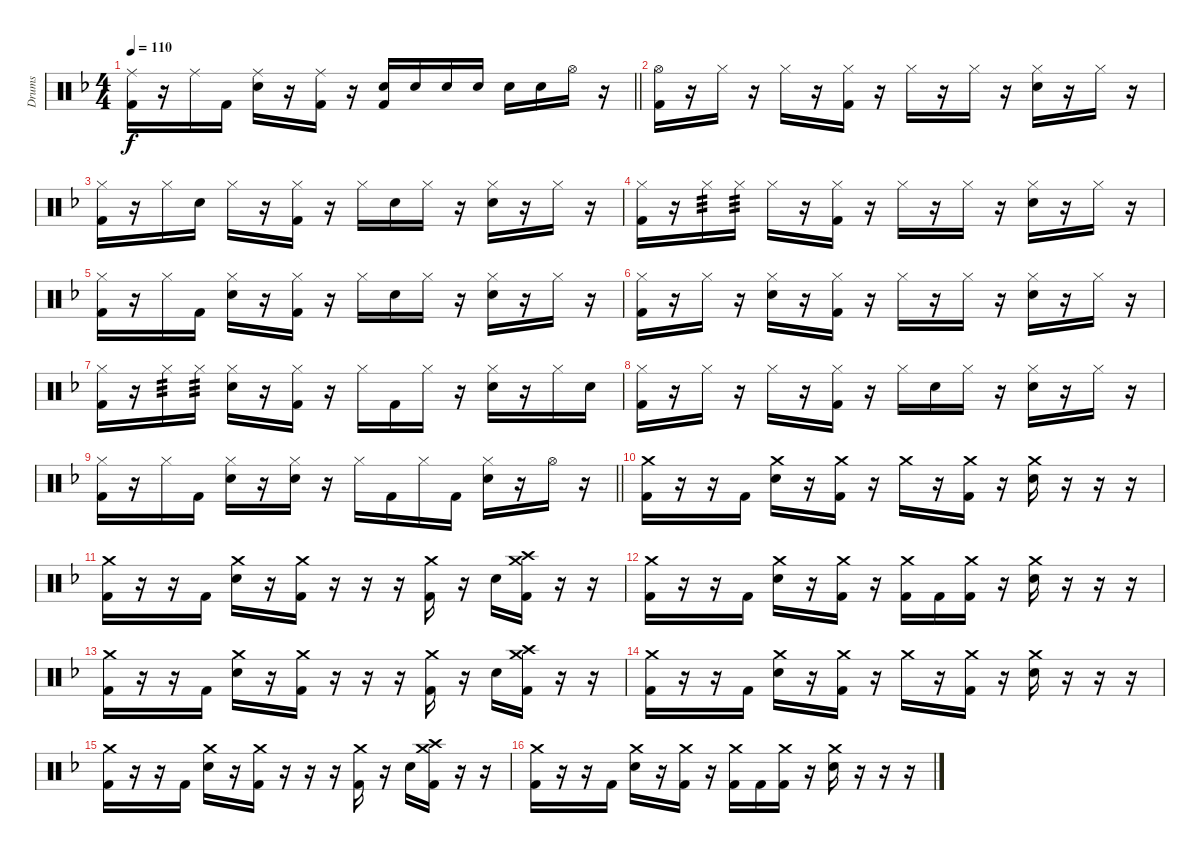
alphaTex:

\track ("Drums" "Drums") {instrument percussion}
\staff {score}
\articulation defaults
\ts (4 4)
\tempo 110
\clef neutral
\barLineRight lightlight
\ks dminor
("Ride (middle)" "Kick (hit) 2").16{dy f} r.16 "Ride (middle)".16 "Kick (hit) 2".16 ("Ride (middle)" "Snare (hit) 2").16 r.16 ("Ride (middle)" "Kick (hit) 2").16 r.16 ("Snare (hit) 2" "Kick (hit) 2").16 "Snare (hit) 2".16 "Snare (hit) 2".16 "Snare (hit) 2".16 "Snare (hit) 2".16 "Snare (hit) 2".16 "Hi-Hat (open)".16 r.16 |
("Hi-Hat (open)" "Kick (hit) 2").16 r.16 "Hi-Hat (closed)".16 r.16 "Hi-Hat (closed)".16 r.16 ("Hi-Hat (closed)" "Kick (hit) 2").16 r.16 "Hi-Hat (closed)".16 r.16 "Hi-Hat (closed)".16 r.16 ("Hi-Hat (closed)" "Snare (hit) 2").16 r.16 "Hi-Hat (closed)".16 r.16 |
("Hi-Hat (closed)" "Kick (hit) 2").16 r.16 "Hi-Hat (closed)".16 "Snare (hit) 2".16 "Hi-Hat (closed)".16 r.16 ("Hi-Hat (closed)" "Kick (hit) 2").16 r.16 "Hi-Hat (closed)".16 "Snare (hit) 2".16 "Hi-Hat (closed)".16 r.16 ("Hi-Hat (closed)" "Snare (hit) 2").16 r.16 "Hi-Hat (closed)".16 r.16 |
("Hi-Hat (closed)" "Kick (hit) 2").16 r.16 "Hi-Hat (closed)".16{tp 3} "Hi-Hat (closed)".16{tp 3} "Hi-Hat (closed)".16 r.16 ("Hi-Hat (closed)" "Kick (hit) 2").16 r.16 "Hi-Hat (closed)".16 r.16 "Hi-Hat (closed)".16 r.16 ("Hi-Hat (closed)" "Snare (hit) 2").16 r.16 "Hi-Hat (closed)".16 r.16 |
("Hi-Hat (closed)" "Kick (hit) 2").16 r.16 "Hi-Hat (closed)".16 "Kick (hit) 2".16 ("Hi-Hat (closed)" "Snare (hit) 2").16 r.16 ("Hi-Hat (closed)" "Kick (hit) 2").16 r.16 "Hi-Hat (closed)".16 "Snare (hit) 2".16 "Hi-Hat (closed)".16 r.16 ("Hi-Hat (closed)" "Snare (hit) 2").16 r.16 "Hi-Hat (closed)".16 r.16 |
("Hi-Hat (closed)" "Kick (hit) 2").16 r.16 "Hi-Hat (closed)".16 r.16 ("Hi-Hat (closed)" "Snare (hit) 2").16 r.16 ("Hi-Hat (closed)" "Kick (hit) 2").16 r.16 "Hi-Hat (closed)".16 r.16 "Hi-Hat (closed)".16 r.16 ("Hi-Hat (closed)" "Snare (hit) 2").16 r.16 "Hi-Hat (closed)".16 r.16 |
("Hi-Hat (closed)" "Kick (hit) 2").16 r.16 "Hi-Hat (closed)".16{tp 3} "Hi-Hat (closed)".16{tp 3} ("Hi-Hat (closed)" "Snare (hit) 2").16 r.16 ("Hi-Hat (closed)" "Kick (hit) 2").16 r.16 "Hi-Hat (closed)".16 "Kick (hit) 2".16 "Hi-Hat (closed)".16 r.16 ("Hi-Hat (closed)" "Snare (hit) 2").16 r.16 "Hi-Hat (closed)".16 "Snare (hit) 2".16 |
("Hi-Hat (closed)" "Kick (hit) 2").16 r.16 "Hi-Hat (closed)".16 r.16 "Hi-Hat (closed)".16 r.16 ("Hi-Hat (closed)" "Kick (hit) 2").16 r.16 "Hi-Hat (closed)".16 "Snare (hit) 2".16 "Hi-Hat (closed)".16 r.16 ("Hi-Hat (closed)" "Snare (hit) 2").16 r.16 "Hi-Hat (closed)".16 r.16 |
\barLineRight lightlight
("Hi-Hat (closed)" "Kick (hit) 2").16 r.16 "Hi-Hat (closed)".16 "Kick (hit) 2".16 ("Hi-Hat (closed)" "Snare (hit) 2").16 r.16 ("Hi-Hat (closed)" "Snare (hit) 2").16 r.16 "Hi-Hat (closed)".16 "Kick (hit) 2".16 "Hi-Hat (closed)".16 "Kick (hit) 2".16 ("Hi-Hat (closed)" "Snare (hit) 2").16 r.16 "Hi-Hat (open)".16 r.16 |
("Crash medium (hit)" "Kick (hit) 2").16 r.16 r.16 "Kick (hit) 2".16 ("Crash medium (hit)" "Snare (hit) 2").16 r.16 ("Crash medium (hit)" "Kick (hit) 2").16 r.16 "Crash medium (hit)".16 r.16 ("Crash medium (hit)" "Kick (hit) 2").16 r.16 ("Crash medium (hit)" "Snare (hit) 2").16 r.16 r.16 r.16 |
("Crash medium (hit)" "Kick (hit) 2").16 r.16 r.16 "Kick (hit) 2".16 ("Crash medium (hit)" "Snare (hit) 2").16 r.16 ("Crash medium (hit)" "Kick (hit) 2").16 r.16 r.16 r.16 ("Crash medium (hit)" "Kick (hit) 2").16 r.16 "Snare (hit) 2".16 ("Crash high (hit)" "Crash medium (hit)" "Kick (hit) 2").16 r.16 r.16 |
("Crash medium (hit)" "Kick (hit) 2").16 r.16 r.16 "Kick (hit) 2".16 ("Crash medium (hit)" "Snare (hit) 2").16 r.16 ("Crash medium (hit)" "Kick (hit) 2").16 r.16 ("Crash medium (hit)" "Kick (hit) 2").16 "Kick (hit) 2".16 ("Crash medium (hit)" "Kick (hit) 2").16 r.16 ("Crash medium (hit)" "Snare (hit) 2").16 r.16 r.16 r.16 |
("Crash medium (hit)" "Kick (hit) 2").16 r.16 r.16 "Kick (hit) 2".16 ("Crash medium (hit)" "Snare (hit) 2").16 r.16 ("Crash medium (hit)" "Kick (hit) 2").16 r.16 r.16 r.16 ("Crash medium (hit)" "Kick (hit) 2").16 r.16 "Snare (hit) 2".16 ("Crash high (hit)" "Crash medium (hit)" "Kick (hit) 2").16 r.16 r.16 |
("Crash medium (hit)" "Kick (hit) 2").16 r.16 r.16 "Kick (hit) 2".16 ("Crash medium (hit)" "Snare (hit) 2").16 r.16 ("Crash medium (hit)" "Kick (hit) 2").16 r.16 "Crash medium (hit)".16 r.16 ("Crash medium (hit)" "Kick (hit) 2").16 r.16 ("Crash medium (hit)" "Snare (hit) 2").16 r.16 r.16 r.16 |
("Crash medium (hit)" "Kick (hit) 2").16 r.16 r.16 "Kick (hit) 2".16 ("Crash medium (hit)" "Snare (hit) 2").16 r.16 ("Crash medium (hit)" "Kick (hit) 2").16 r.16 r.16 r.16 ("Crash medium (hit)" "Kick (hit) 2").16 r.16 "Snare (hit) 2".16 ("Crash high (hit)" "Crash medium (hit)" "Kick (hit) 2").16 r.16 r.16 |
("Crash medium (hit)" "Kick (hit) 2").16 r.16 r.16 "Kick (hit) 2".16 ("Crash medium (hit)" "Snare (hit) 2").16 r.16 ("Crash medium (hit)" "Kick (hit) 2").16 r.16 ("Crash medium (hit)" "Kick (hit) 2").16 "Kick (hit) 2".16 ("Crash medium (hit)" "Kick (hit) 2").16 r.16 ("Crash medium (hit)" "Snare (hit) 2").16 r.16 r.16 r.16
